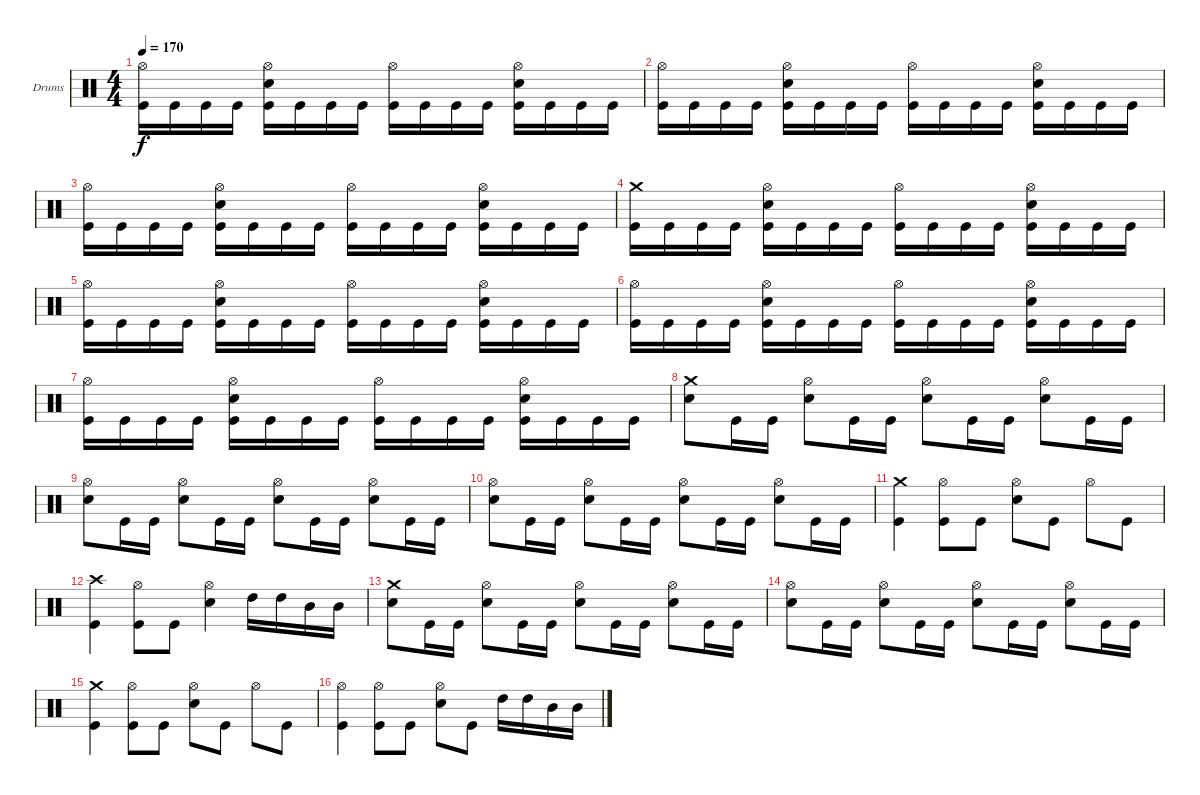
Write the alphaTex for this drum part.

\bracketExtendMode groupsimilarinstruments
\firstSystemTrackNameOrientation horizontal
\otherSystemsTrackNameOrientation horizontal
\track ("Дмитрий Кривенков" "Drums") {instrument percussion}
\staff {score}
\articulation defaults
\ts (4 4)
\tempo 170
\clef neutral
\ks c
("Hi-Hat (open)" "Kick (hit)").16{dy f} "Kick (hit)".16 "Kick (hit)".16 "Kick (hit)".16 ("Hi-Hat (open)" "Snare (hit) 2" "Kick (hit)").16 "Kick (hit)".16 "Kick (hit)".16 "Kick (hit)".16 ("Hi-Hat (open)" "Kick (hit)").16 "Kick (hit)".16 "Kick (hit)".16 "Kick (hit)".16 ("Hi-Hat (open)" "Snare (hit) 2" "Kick (hit)").16 "Kick (hit)".16 "Kick (hit)".16 "Kick (hit)".16 |
("Hi-Hat (open)" "Kick (hit)").16 "Kick (hit)".16 "Kick (hit)".16 "Kick (hit)".16 ("Hi-Hat (open)" "Snare (hit) 2" "Kick (hit)").16 "Kick (hit)".16 "Kick (hit)".16 "Kick (hit)".16 ("Hi-Hat (open)" "Kick (hit)").16 "Kick (hit)".16 "Kick (hit)".16 "Kick (hit)".16 ("Hi-Hat (open)" "Snare (hit) 2" "Kick (hit)").16 "Kick (hit)".16 "Kick (hit)".16 "Kick (hit)".16 |
("Hi-Hat (open)" "Kick (hit)").16 "Kick (hit)".16 "Kick (hit)".16 "Kick (hit)".16 ("Hi-Hat (open)" "Snare (hit) 2" "Kick (hit)").16 "Kick (hit)".16 "Kick (hit)".16 "Kick (hit)".16 ("Hi-Hat (open)" "Kick (hit)").16 "Kick (hit)".16 "Kick (hit)".16 "Kick (hit)".16 ("Hi-Hat (open)" "Snare (hit) 2" "Kick (hit)").16 "Kick (hit)".16 "Kick (hit)".16 "Kick (hit)".16 |
("Crash medium (hit)" "Kick (hit)").16 "Kick (hit)".16 "Kick (hit)".16 "Kick (hit)".16 ("Hi-Hat (open)" "Snare (hit) 2" "Kick (hit)").16 "Kick (hit)".16 "Kick (hit)".16 "Kick (hit)".16 ("Hi-Hat (open)" "Kick (hit)").16 "Kick (hit)".16 "Kick (hit)".16 "Kick (hit)".16 ("Hi-Hat (open)" "Snare (hit) 2" "Kick (hit)").16 "Kick (hit)".16 "Kick (hit)".16 "Kick (hit)".16 |
("Hi-Hat (open)" "Kick (hit)").16 "Kick (hit)".16 "Kick (hit)".16 "Kick (hit)".16 ("Hi-Hat (open)" "Snare (hit) 2" "Kick (hit)").16 "Kick (hit)".16 "Kick (hit)".16 "Kick (hit)".16 ("Hi-Hat (open)" "Kick (hit)").16 "Kick (hit)".16 "Kick (hit)".16 "Kick (hit)".16 ("Hi-Hat (open)" "Snare (hit) 2" "Kick (hit)").16 "Kick (hit)".16 "Kick (hit)".16 "Kick (hit)".16 |
("Hi-Hat (open)" "Kick (hit)").16 "Kick (hit)".16 "Kick (hit)".16 "Kick (hit)".16 ("Hi-Hat (open)" "Snare (hit) 2" "Kick (hit)").16 "Kick (hit)".16 "Kick (hit)".16 "Kick (hit)".16 ("Hi-Hat (open)" "Kick (hit)").16 "Kick (hit)".16 "Kick (hit)".16 "Kick (hit)".16 ("Hi-Hat (open)" "Snare (hit) 2" "Kick (hit)").16 "Kick (hit)".16 "Kick (hit)".16 "Kick (hit)".16 |
("Hi-Hat (open)" "Kick (hit)").16 "Kick (hit)".16 "Kick (hit)".16 "Kick (hit)".16 ("Hi-Hat (open)" "Snare (hit) 2" "Kick (hit)").16 "Kick (hit)".16 "Kick (hit)".16 "Kick (hit)".16 ("Hi-Hat (open)" "Kick (hit)").16 "Kick (hit)".16 "Kick (hit)".16 "Kick (hit)".16 ("Hi-Hat (open)" "Snare (hit) 2" "Kick (hit)").16 "Kick (hit)".16 "Kick (hit)".16 "Kick (hit)".16 |
("Crash medium (hit)" "Snare (hit) 2").8 "Kick (hit)".16 "Kick (hit)".16 ("Hi-Hat (open)" "Snare (hit) 2").8 "Kick (hit)".16 "Kick (hit)".16 ("Hi-Hat (open)" "Snare (hit) 2").8 "Kick (hit)".16 "Kick (hit)".16 ("Hi-Hat (open)" "Snare (hit) 2").8 "Kick (hit)".16 "Kick (hit)".16 |
("Hi-Hat (open)" "Snare (hit) 2").8 "Kick (hit)".16 "Kick (hit)".16 ("Hi-Hat (open)" "Snare (hit) 2").8 "Kick (hit)".16 "Kick (hit)".16 ("Hi-Hat (open)" "Snare (hit) 2").8 "Kick (hit)".16 "Kick (hit)".16 ("Hi-Hat (open)" "Snare (hit) 2").8 "Kick (hit)".16 "Kick (hit)".16 |
("Hi-Hat (open)" "Snare (hit) 2").8 "Kick (hit)".16 "Kick (hit)".16 ("Hi-Hat (open)" "Snare (hit) 2").8 "Kick (hit)".16 "Kick (hit)".16 ("Hi-Hat (open)" "Snare (hit) 2").8 "Kick (hit)".16 "Kick (hit)".16 ("Hi-Hat (open)" "Snare (hit) 2").8 "Kick (hit)".16 "Kick (hit)".16 |
("Crash medium (hit)" "Kick (hit)").4 ("Hi-Hat (open)" "Kick (hit)").8 "Kick (hit)".8 ("Hi-Hat (open)" "Snare (hit) 2").8 "Kick (hit)".8 "Hi-Hat (open)".8 "Kick (hit)".8 |
("Crash high (hit)" "Kick (hit)").4 ("Hi-Hat (open)" "Kick (hit)").8 "Kick (hit)".8 ("Hi-Hat (open)" "Snare (hit) 2").4 "High Tom (hit)".16 "High Tom (hit)".16 "Mid Tom (hit)".16 "Mid Tom (hit)".16 |
("Crash medium (hit)" "Snare (hit) 2").8 "Kick (hit)".16 "Kick (hit)".16 ("Hi-Hat (open)" "Snare (hit) 2").8 "Kick (hit)".16 "Kick (hit)".16 ("Hi-Hat (open)" "Snare (hit) 2").8 "Kick (hit)".16 "Kick (hit)".16 ("Hi-Hat (open)" "Snare (hit) 2").8 "Kick (hit)".16 "Kick (hit)".16 |
("Hi-Hat (open)" "Snare (hit) 2").8 "Kick (hit)".16 "Kick (hit)".16 ("Hi-Hat (open)" "Snare (hit) 2").8 "Kick (hit)".16 "Kick (hit)".16 ("Hi-Hat (open)" "Snare (hit) 2").8 "Kick (hit)".16 "Kick (hit)".16 ("Hi-Hat (open)" "Snare (hit) 2").8 "Kick (hit)".16 "Kick (hit)".16 |
("Crash medium (hit)" "Kick (hit)").4 ("Hi-Hat (open)" "Kick (hit)").8 "Kick (hit)".8 ("Hi-Hat (open)" "Snare (hit) 2").8 "Kick (hit)".8 "Hi-Hat (open)".8 "Kick (hit)".8 |
("Hi-Hat (open)" "Kick (hit)").4 ("Hi-Hat (open)" "Kick (hit)").8 "Kick (hit)".8 ("Hi-Hat (open)" "Snare (hit) 2").8 "Kick (hit)".8 "High Tom (hit)".16 "High Tom (hit)".16 "Mid Tom (hit)".16 "Mid Tom (hit)".16
